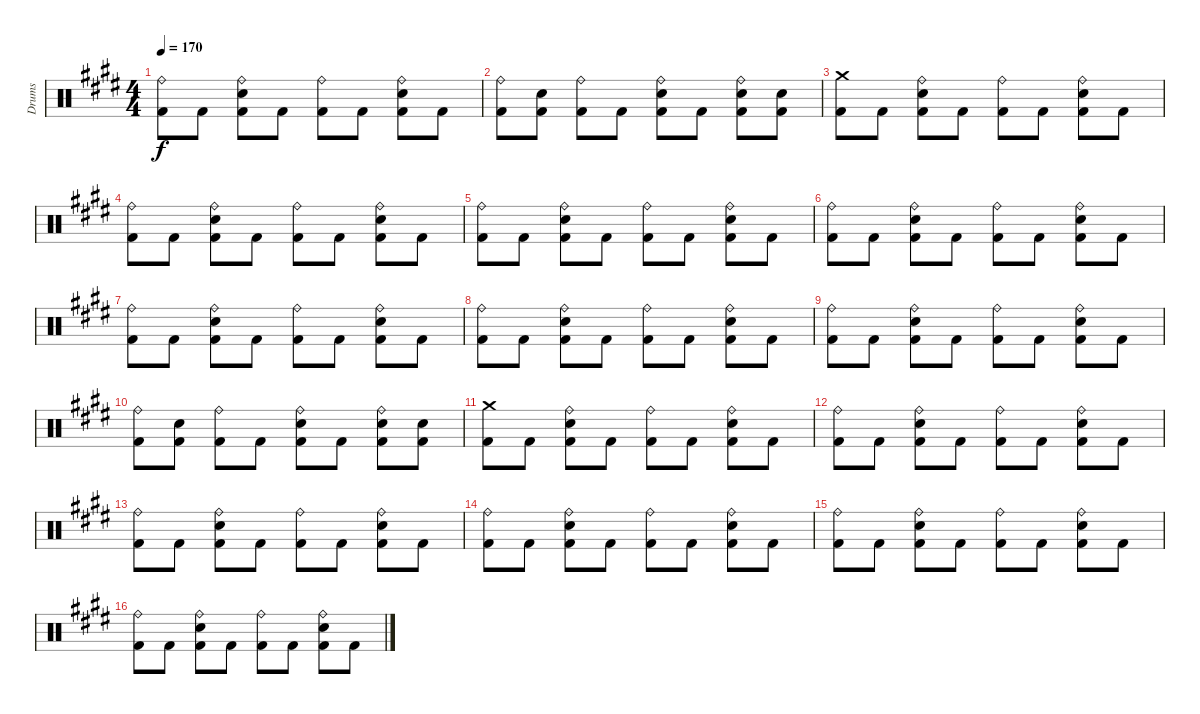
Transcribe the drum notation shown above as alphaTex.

\track ("Drums" "Drums") {instrument percussion}
\staff {score}
\articulation defaults
\ts (4 4)
\tempo 170
\clef neutral
\ks c#minor
("Ride (bell)" "Kick (hit) 2").8{dy f} "Kick (hit) 2".8 ("Ride (bell)" "Electric Snare (hit)" "Kick (hit) 2").8 "Kick (hit) 2".8 ("Ride (bell)" "Kick (hit) 2").8 "Kick (hit) 2".8 ("Ride (bell)" "Electric Snare (hit)" "Kick (hit) 2").8 "Kick (hit) 2".8 |
("Ride (bell)" "Kick (hit) 2").8 ("Electric Snare (hit)" "Kick (hit) 2").8 ("Ride (bell)" "Kick (hit) 2").8 "Kick (hit) 2".8 ("Ride (bell)" "Electric Snare (hit)" "Kick (hit) 2").8 "Kick (hit) 2".8 ("Ride (bell)" "Electric Snare (hit)" "Kick (hit) 2").8 ("Electric Snare (hit)" "Kick (hit) 2").8 |
("Crash medium (hit)" "Kick (hit) 2").8 "Kick (hit) 2".8 ("Ride (bell)" "Electric Snare (hit)" "Kick (hit) 2").8 "Kick (hit) 2".8 ("Ride (bell)" "Kick (hit) 2").8 "Kick (hit) 2".8 ("Ride (bell)" "Electric Snare (hit)" "Kick (hit) 2").8 "Kick (hit) 2".8 |
("Ride (bell)" "Kick (hit) 2").8 "Kick (hit) 2".8 ("Ride (bell)" "Electric Snare (hit)" "Kick (hit) 2").8 "Kick (hit) 2".8 ("Ride (bell)" "Kick (hit) 2").8 "Kick (hit) 2".8 ("Ride (bell)" "Electric Snare (hit)" "Kick (hit) 2").8 "Kick (hit) 2".8 |
("Ride (bell)" "Kick (hit) 2").8 "Kick (hit) 2".8 ("Ride (bell)" "Electric Snare (hit)" "Kick (hit) 2").8 "Kick (hit) 2".8 ("Ride (bell)" "Kick (hit) 2").8 "Kick (hit) 2".8 ("Ride (bell)" "Electric Snare (hit)" "Kick (hit) 2").8 "Kick (hit) 2".8 |
("Ride (bell)" "Kick (hit) 2").8 "Kick (hit) 2".8 ("Ride (bell)" "Electric Snare (hit)" "Kick (hit) 2").8 "Kick (hit) 2".8 ("Ride (bell)" "Kick (hit) 2").8 "Kick (hit) 2".8 ("Ride (bell)" "Electric Snare (hit)" "Kick (hit) 2").8 "Kick (hit) 2".8 |
("Ride (bell)" "Kick (hit) 2").8 "Kick (hit) 2".8 ("Ride (bell)" "Electric Snare (hit)" "Kick (hit) 2").8 "Kick (hit) 2".8 ("Ride (bell)" "Kick (hit) 2").8 "Kick (hit) 2".8 ("Ride (bell)" "Electric Snare (hit)" "Kick (hit) 2").8 "Kick (hit) 2".8 |
("Ride (bell)" "Kick (hit) 2").8 "Kick (hit) 2".8 ("Ride (bell)" "Electric Snare (hit)" "Kick (hit) 2").8 "Kick (hit) 2".8 ("Ride (bell)" "Kick (hit) 2").8 "Kick (hit) 2".8 ("Ride (bell)" "Electric Snare (hit)" "Kick (hit) 2").8 "Kick (hit) 2".8 |
("Ride (bell)" "Kick (hit) 2").8 "Kick (hit) 2".8 ("Ride (bell)" "Electric Snare (hit)" "Kick (hit) 2").8 "Kick (hit) 2".8 ("Ride (bell)" "Kick (hit) 2").8 "Kick (hit) 2".8 ("Ride (bell)" "Electric Snare (hit)" "Kick (hit) 2").8 "Kick (hit) 2".8 |
("Ride (bell)" "Kick (hit) 2").8 ("Electric Snare (hit)" "Kick (hit) 2").8 ("Ride (bell)" "Kick (hit) 2").8 "Kick (hit) 2".8 ("Ride (bell)" "Electric Snare (hit)" "Kick (hit) 2").8 "Kick (hit) 2".8 ("Ride (bell)" "Electric Snare (hit)" "Kick (hit) 2").8 ("Electric Snare (hit)" "Kick (hit) 2").8 |
("Crash medium (hit)" "Kick (hit) 2").8 "Kick (hit) 2".8 ("Ride (bell)" "Electric Snare (hit)" "Kick (hit) 2").8 "Kick (hit) 2".8 ("Ride (bell)" "Kick (hit) 2").8 "Kick (hit) 2".8 ("Ride (bell)" "Electric Snare (hit)" "Kick (hit) 2").8 "Kick (hit) 2".8 |
("Ride (bell)" "Kick (hit) 2").8 "Kick (hit) 2".8 ("Ride (bell)" "Electric Snare (hit)" "Kick (hit) 2").8 "Kick (hit) 2".8 ("Ride (bell)" "Kick (hit) 2").8 "Kick (hit) 2".8 ("Ride (bell)" "Electric Snare (hit)" "Kick (hit) 2").8 "Kick (hit) 2".8 |
("Ride (bell)" "Kick (hit) 2").8 "Kick (hit) 2".8 ("Ride (bell)" "Electric Snare (hit)" "Kick (hit) 2").8 "Kick (hit) 2".8 ("Ride (bell)" "Kick (hit) 2").8 "Kick (hit) 2".8 ("Ride (bell)" "Electric Snare (hit)" "Kick (hit) 2").8 "Kick (hit) 2".8 |
("Ride (bell)" "Kick (hit) 2").8 "Kick (hit) 2".8 ("Ride (bell)" "Electric Snare (hit)" "Kick (hit) 2").8 "Kick (hit) 2".8 ("Ride (bell)" "Kick (hit) 2").8 "Kick (hit) 2".8 ("Ride (bell)" "Electric Snare (hit)" "Kick (hit) 2").8 "Kick (hit) 2".8 |
("Ride (bell)" "Kick (hit) 2").8 "Kick (hit) 2".8 ("Ride (bell)" "Electric Snare (hit)" "Kick (hit) 2").8 "Kick (hit) 2".8 ("Ride (bell)" "Kick (hit) 2").8 "Kick (hit) 2".8 ("Ride (bell)" "Electric Snare (hit)" "Kick (hit) 2").8 "Kick (hit) 2".8 |
("Ride (bell)" "Kick (hit) 2").8 "Kick (hit) 2".8 ("Ride (bell)" "Electric Snare (hit)" "Kick (hit) 2").8 "Kick (hit) 2".8 ("Ride (bell)" "Kick (hit) 2").8 "Kick (hit) 2".8 ("Ride (bell)" "Electric Snare (hit)" "Kick (hit) 2").8 "Kick (hit) 2".8
